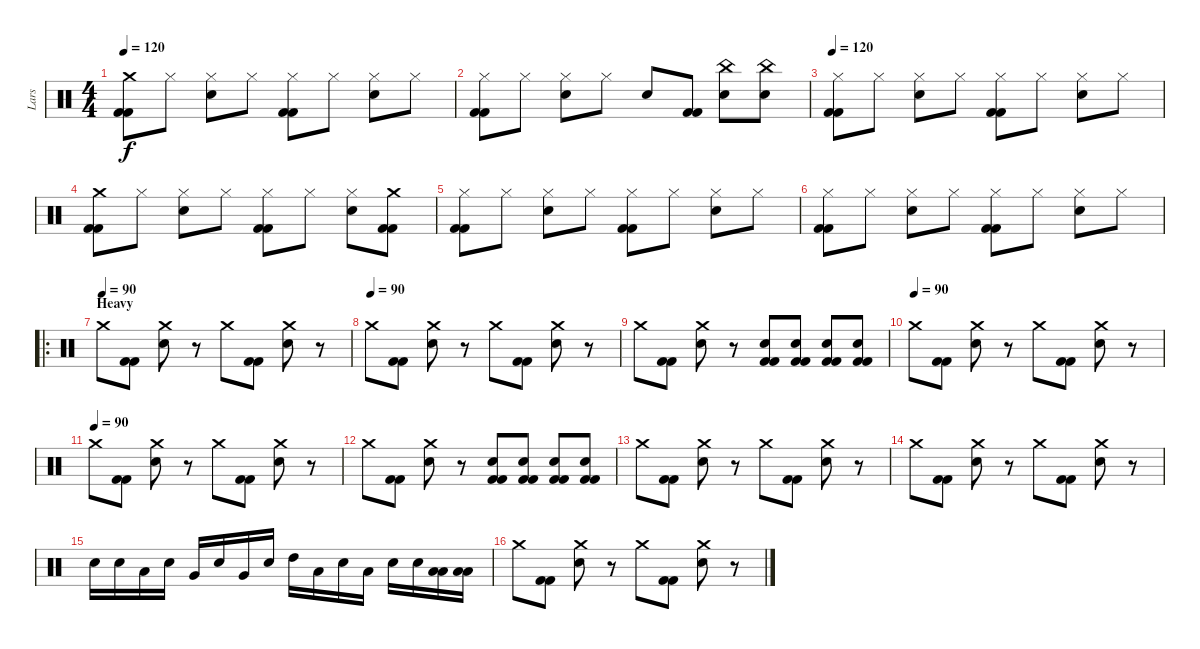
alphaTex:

\track ("Lars" "Lars") {instrument percussion}
\staff {score}
\articulation defaults
\ts (4 4)
\tempo 120
\clef neutral
\ks c
("Crash medium (hit)" "Kick (hit) 2" "Kick (hit) 2").8{dy f} "Hi-Hat (closed)".8 ("Electric Snare (hit)" "Hi-Hat (closed)").8 "Hi-Hat (closed)".8 ("Hi-Hat (closed)" "Kick (hit) 2" "Kick (hit) 2").8 "Hi-Hat (closed)".8 ("Electric Snare (hit)" "Hi-Hat (closed)").8 "Hi-Hat (closed)".8 |
("Hi-Hat (closed)" "Kick (hit) 2" "Kick (hit) 2").8 "Hi-Hat (closed)".8 ("Electric Snare (hit)" "Hi-Hat (closed)").8 "Hi-Hat (closed)".8 "Electric Snare (hit)".8 ("Kick (hit) 2" "Kick (hit) 2").8 ("Electric Snare (hit)" "China (hit)").8 ("Electric Snare (hit)" "China (hit)").8 |
\tempo 120
("Hi-Hat (closed)" "Kick (hit) 2" "Kick (hit) 2").8 "Hi-Hat (closed)".8 ("Electric Snare (hit)" "Hi-Hat (closed)").8 "Hi-Hat (closed)".8 ("Hi-Hat (closed)" "Kick (hit) 2" "Kick (hit) 2").8 "Hi-Hat (closed)".8 ("Electric Snare (hit)" "Hi-Hat (closed)").8 "Hi-Hat (closed)".8 |
("Crash medium (hit)" "Kick (hit) 2" "Kick (hit) 2").8 "Hi-Hat (closed)".8 ("Electric Snare (hit)" "Hi-Hat (closed)").8 "Hi-Hat (closed)".8 ("Hi-Hat (closed)" "Kick (hit) 2" "Kick (hit) 2").8 "Hi-Hat (closed)".8 ("Electric Snare (hit)" "Hi-Hat (closed)").8 ("Kick (hit) 2" "Kick (hit) 2" "Crash medium (hit)").8 |
("Hi-Hat (closed)" "Kick (hit) 2" "Kick (hit) 2").8 "Hi-Hat (closed)".8 ("Electric Snare (hit)" "Hi-Hat (closed)").8 "Hi-Hat (closed)".8 ("Hi-Hat (closed)" "Kick (hit) 2" "Kick (hit) 2").8 "Hi-Hat (closed)".8 ("Electric Snare (hit)" "Hi-Hat (closed)").8 "Hi-Hat (closed)".8 |
("Hi-Hat (closed)" "Kick (hit) 2" "Kick (hit) 2").8 "Hi-Hat (closed)".8 ("Electric Snare (hit)" "Hi-Hat (closed)").8 "Hi-Hat (closed)".8 ("Hi-Hat (closed)" "Kick (hit) 2" "Kick (hit) 2").8 "Hi-Hat (closed)".8 ("Electric Snare (hit)" "Hi-Hat (closed)").8 "Hi-Hat (closed)".8 |
\ro
\section ("" "Heavy")
\tempo (90)
"Crash medium (hit)".8 ("Kick (hit) 2" "Kick (hit) 2").8 ("Electric Snare (hit)" "Crash medium (hit)").8 r.8 "Crash medium (hit)".8 ("Kick (hit) 2" "Kick (hit) 2").8 ("Electric Snare (hit)" "Crash medium (hit)").8 r.8 |
\tempo (90)
"Crash medium (hit)".8 ("Kick (hit) 2" "Kick (hit) 2").8 ("Electric Snare (hit)" "Crash medium (hit)").8 r.8 "Crash medium (hit)".8 ("Kick (hit) 2" "Kick (hit) 2").8 ("Electric Snare (hit)" "Crash medium (hit)").8 r.8 |
"Crash medium (hit)".8 ("Kick (hit) 2" "Kick (hit) 2").8 ("Electric Snare (hit)" "Crash medium (hit)").8 r.8 ("Electric Snare (hit)" "Kick (hit) 2" "Kick (hit) 2").8 ("Electric Snare (hit)" "Kick (hit) 2" "Kick (hit) 2").8 ("Kick (hit) 2" "Kick (hit) 2" "Electric Snare (hit)").8 ("Electric Snare (hit)" "Kick (hit) 2" "Kick (hit) 2").8 |
\tempo (90)
"Crash medium (hit)".8 ("Kick (hit) 2" "Kick (hit) 2").8 ("Electric Snare (hit)" "Crash medium (hit)").8 r.8 "Crash medium (hit)".8 ("Kick (hit) 2" "Kick (hit) 2").8 ("Electric Snare (hit)" "Crash medium (hit)").8 r.8 |
\tempo (90)
"Crash medium (hit)".8 ("Kick (hit) 2" "Kick (hit) 2").8 ("Electric Snare (hit)" "Crash medium (hit)").8 r.8 "Crash medium (hit)".8 ("Kick (hit) 2" "Kick (hit) 2").8 ("Electric Snare (hit)" "Crash medium (hit)").8 r.8 |
"Crash medium (hit)".8 ("Kick (hit) 2" "Kick (hit) 2").8 ("Electric Snare (hit)" "Crash medium (hit)").8 r.8 ("Electric Snare (hit)" "Kick (hit) 2" "Kick (hit) 2").8 ("Electric Snare (hit)" "Kick (hit) 2" "Kick (hit) 2").8 ("Kick (hit) 2" "Kick (hit) 2" "Electric Snare (hit)").8 ("Electric Snare (hit)" "Kick (hit) 2" "Kick (hit) 2").8 |
"Crash medium (hit)".8 ("Kick (hit) 2" "Kick (hit) 2").8 ("Electric Snare (hit)" "Crash medium (hit)").8 r.8 "Crash medium (hit)".8 ("Kick (hit) 2" "Kick (hit) 2").8 ("Crash medium (hit)" "Electric Snare (hit)").8 r.8 |
"Crash medium (hit)".8 ("Kick (hit) 2" "Kick (hit) 2").8 ("Electric Snare (hit)" "Crash medium (hit)").8 r.8 "Crash medium (hit)".8 ("Kick (hit) 2" "Kick (hit) 2").8 ("Crash medium (hit)" "Electric Snare (hit)").8 r.8 |
"Electric Snare (hit)".16 "Electric Snare (hit)".16 "Low Tom (hit)".16 "Electric Snare (hit)".16 "Very Low Tom (hit)".16 "Electric Snare (hit)".16 "Very Low Tom (hit)".16 "Electric Snare (hit)".16 "High Tom (hit)".16 "Low Tom (hit)".16 "Electric Snare (hit)".16 "Low Tom (hit)".16 "Electric Snare (hit)".16 "Electric Snare (hit)".16 ("Low Floor Tom (hit)" "Low Floor Tom (hit)").16 ("Low Floor Tom (hit)" "Low Floor Tom (hit)").16 |
"Crash medium (hit)".8 ("Kick (hit) 2" "Kick (hit) 2").8 ("Electric Snare (hit)" "Crash medium (hit)").8 r.8 "Crash medium (hit)".8 ("Kick (hit) 2" "Kick (hit) 2").8 ("Crash medium (hit)" "Electric Snare (hit)").8 r.8
